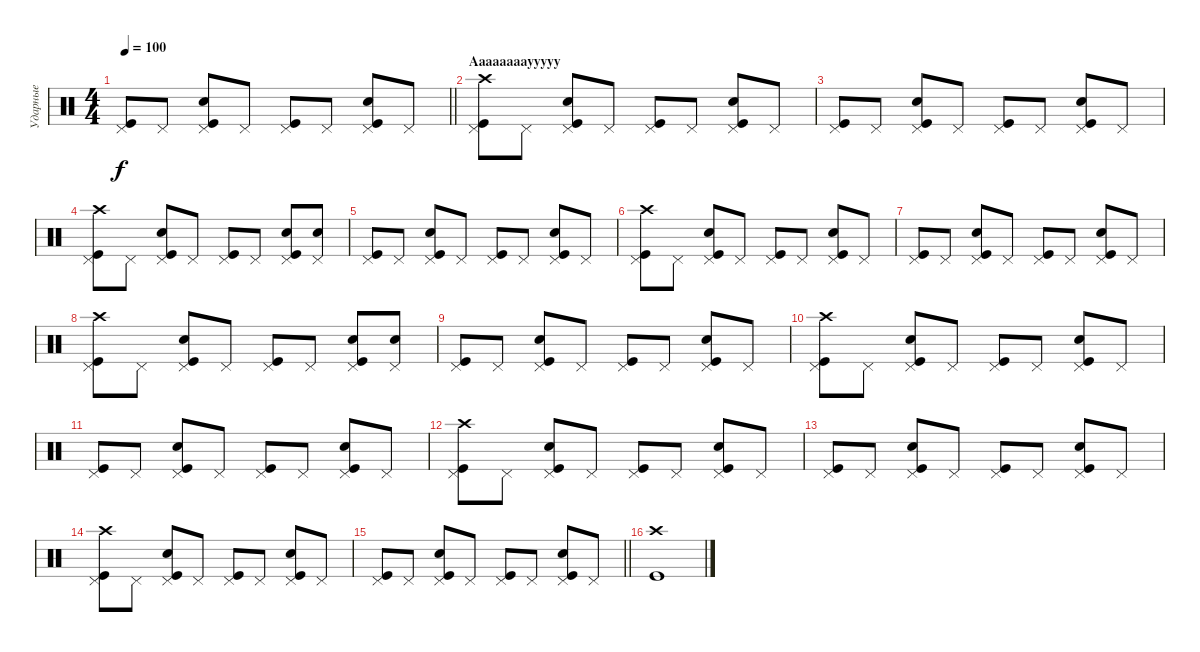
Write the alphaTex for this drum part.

\track ("Ударные" "Ударные") {instrument percussion}
\staff {score}
\articulation defaults
\ts (4 4)
\tempo 100
\clef neutral
\barLineRight lightlight
\ks c
("Pedal Hi-Hat (hit)" "Kick (hit)").8{dy f} "Pedal Hi-Hat (hit)".8 ("Pedal Hi-Hat (hit)" "Kick (hit)" "Snare (hit) 2").8 "Pedal Hi-Hat (hit)".8 ("Pedal Hi-Hat (hit)" "Kick (hit)").8 "Pedal Hi-Hat (hit)".8 ("Pedal Hi-Hat (hit)" "Kick (hit)" "Snare (hit) 2").8 "Pedal Hi-Hat (hit)".8 |
\section ("" "Ааааааааууууу")
("Pedal Hi-Hat (hit)" "Kick (hit)" "Crash high (hit)").8 "Pedal Hi-Hat (hit)".8 ("Pedal Hi-Hat (hit)" "Kick (hit)" "Snare (hit) 2").8 "Pedal Hi-Hat (hit)".8 ("Pedal Hi-Hat (hit)" "Kick (hit)").8 "Pedal Hi-Hat (hit)".8 ("Pedal Hi-Hat (hit)" "Kick (hit)" "Snare (hit) 2").8 "Pedal Hi-Hat (hit)".8 |
("Pedal Hi-Hat (hit)" "Kick (hit)").8 "Pedal Hi-Hat (hit)".8 ("Pedal Hi-Hat (hit)" "Kick (hit)" "Snare (hit) 2").8 "Pedal Hi-Hat (hit)".8 ("Pedal Hi-Hat (hit)" "Kick (hit)").8 "Pedal Hi-Hat (hit)".8 ("Pedal Hi-Hat (hit)" "Kick (hit)" "Snare (hit) 2").8 "Pedal Hi-Hat (hit)".8 |
("Pedal Hi-Hat (hit)" "Kick (hit)" "Crash high (hit)").8 "Pedal Hi-Hat (hit)".8 ("Pedal Hi-Hat (hit)" "Kick (hit)" "Snare (hit) 2").8 "Pedal Hi-Hat (hit)".8 ("Pedal Hi-Hat (hit)" "Kick (hit)").8 "Pedal Hi-Hat (hit)".8 ("Pedal Hi-Hat (hit)" "Kick (hit)" "Snare (hit) 2").8 ("Pedal Hi-Hat (hit)" "Snare (hit) 2").8 |
("Pedal Hi-Hat (hit)" "Kick (hit)").8 "Pedal Hi-Hat (hit)".8 ("Pedal Hi-Hat (hit)" "Kick (hit)" "Snare (hit) 2").8 "Pedal Hi-Hat (hit)".8 ("Pedal Hi-Hat (hit)" "Kick (hit)").8 "Pedal Hi-Hat (hit)".8 ("Pedal Hi-Hat (hit)" "Kick (hit)" "Snare (hit) 2").8 "Pedal Hi-Hat (hit)".8 |
("Pedal Hi-Hat (hit)" "Kick (hit)" "Crash high (hit)").8 "Pedal Hi-Hat (hit)".8 ("Pedal Hi-Hat (hit)" "Kick (hit)" "Snare (hit) 2").8 "Pedal Hi-Hat (hit)".8 ("Pedal Hi-Hat (hit)" "Kick (hit)").8 "Pedal Hi-Hat (hit)".8 ("Pedal Hi-Hat (hit)" "Kick (hit)" "Snare (hit) 2").8 "Pedal Hi-Hat (hit)".8 |
("Pedal Hi-Hat (hit)" "Kick (hit)").8 "Pedal Hi-Hat (hit)".8 ("Pedal Hi-Hat (hit)" "Kick (hit)" "Snare (hit) 2").8 "Pedal Hi-Hat (hit)".8 ("Pedal Hi-Hat (hit)" "Kick (hit)").8 "Pedal Hi-Hat (hit)".8 ("Pedal Hi-Hat (hit)" "Kick (hit)" "Snare (hit) 2").8 "Pedal Hi-Hat (hit)".8 |
("Pedal Hi-Hat (hit)" "Kick (hit)" "Crash high (hit)").8 "Pedal Hi-Hat (hit)".8 ("Pedal Hi-Hat (hit)" "Kick (hit)" "Snare (hit) 2").8 "Pedal Hi-Hat (hit)".8 ("Pedal Hi-Hat (hit)" "Kick (hit)").8 "Pedal Hi-Hat (hit)".8 ("Pedal Hi-Hat (hit)" "Kick (hit)" "Snare (hit) 2").8 ("Pedal Hi-Hat (hit)" "Snare (hit) 2").8 |
("Pedal Hi-Hat (hit)" "Kick (hit)").8 "Pedal Hi-Hat (hit)".8 ("Pedal Hi-Hat (hit)" "Kick (hit)" "Snare (hit) 2").8 "Pedal Hi-Hat (hit)".8 ("Pedal Hi-Hat (hit)" "Kick (hit)").8 "Pedal Hi-Hat (hit)".8 ("Pedal Hi-Hat (hit)" "Kick (hit)" "Snare (hit) 2").8 "Pedal Hi-Hat (hit)".8 |
("Pedal Hi-Hat (hit)" "Kick (hit)" "Crash high (hit)").8 "Pedal Hi-Hat (hit)".8 ("Pedal Hi-Hat (hit)" "Kick (hit)" "Snare (hit) 2").8 "Pedal Hi-Hat (hit)".8 ("Pedal Hi-Hat (hit)" "Kick (hit)").8 "Pedal Hi-Hat (hit)".8 ("Pedal Hi-Hat (hit)" "Kick (hit)" "Snare (hit) 2").8 "Pedal Hi-Hat (hit)".8 |
("Pedal Hi-Hat (hit)" "Kick (hit)").8 "Pedal Hi-Hat (hit)".8 ("Pedal Hi-Hat (hit)" "Kick (hit)" "Snare (hit) 2").8 "Pedal Hi-Hat (hit)".8 ("Pedal Hi-Hat (hit)" "Kick (hit)").8 "Pedal Hi-Hat (hit)".8 ("Pedal Hi-Hat (hit)" "Kick (hit)" "Snare (hit) 2").8 "Pedal Hi-Hat (hit)".8 |
("Pedal Hi-Hat (hit)" "Kick (hit)" "Crash high (hit)").8 "Pedal Hi-Hat (hit)".8 ("Pedal Hi-Hat (hit)" "Kick (hit)" "Snare (hit) 2").8 "Pedal Hi-Hat (hit)".8 ("Pedal Hi-Hat (hit)" "Kick (hit)").8 "Pedal Hi-Hat (hit)".8 ("Pedal Hi-Hat (hit)" "Kick (hit)" "Snare (hit) 2").8 "Pedal Hi-Hat (hit)".8 |
("Pedal Hi-Hat (hit)" "Kick (hit)").8 "Pedal Hi-Hat (hit)".8 ("Pedal Hi-Hat (hit)" "Kick (hit)" "Snare (hit) 2").8 "Pedal Hi-Hat (hit)".8 ("Pedal Hi-Hat (hit)" "Kick (hit)").8 "Pedal Hi-Hat (hit)".8 ("Pedal Hi-Hat (hit)" "Kick (hit)" "Snare (hit) 2").8 "Pedal Hi-Hat (hit)".8 |
("Pedal Hi-Hat (hit)" "Kick (hit)" "Crash high (hit)").8 "Pedal Hi-Hat (hit)".8 ("Pedal Hi-Hat (hit)" "Kick (hit)" "Snare (hit) 2").8 "Pedal Hi-Hat (hit)".8 ("Pedal Hi-Hat (hit)" "Kick (hit)").8 "Pedal Hi-Hat (hit)".8 ("Pedal Hi-Hat (hit)" "Kick (hit)" "Snare (hit) 2").8 "Pedal Hi-Hat (hit)".8 |
\barLineRight lightlight
("Pedal Hi-Hat (hit)" "Kick (hit)").8 "Pedal Hi-Hat (hit)".8 ("Pedal Hi-Hat (hit)" "Kick (hit)" "Snare (hit) 2").8 "Pedal Hi-Hat (hit)".8 ("Pedal Hi-Hat (hit)" "Kick (hit)").8 "Pedal Hi-Hat (hit)".8 ("Pedal Hi-Hat (hit)" "Kick (hit)" "Snare (hit) 2").8 "Pedal Hi-Hat (hit)".8 |
("Kick (hit)" "Crash high (hit)").1
